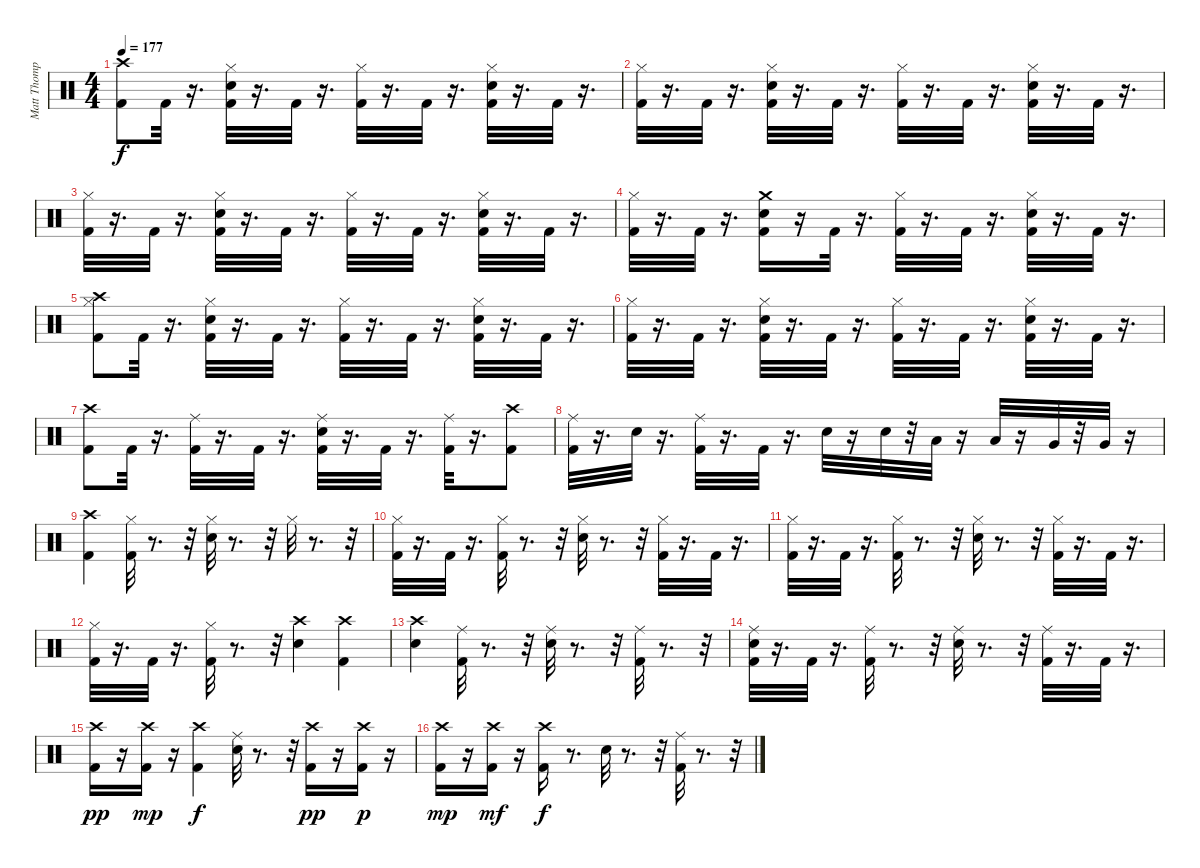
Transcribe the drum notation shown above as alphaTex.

\track ("Matt Thompson" "Matt Thomp") {instrument percussion}
\staff {score}
\articulation defaults
\ts (4 4)
\tempo 177
\clef neutral
\ks c
("Crash high (hit)" "Kick (hit) 2").8{dy f} "Kick (hit) 2".32 r.16{d} ("Snare (hit) 2" "Hi-Hat (closed)" "Kick (hit) 2").32 r.16{d} "Kick (hit) 2".32 r.16{d} ("Hi-Hat (closed)" "Kick (hit) 2").32 r.16{d} "Kick (hit) 2".32 r.16{d} ("Snare (hit) 2" "Hi-Hat (closed)" "Kick (hit) 2").32 r.16{d} "Kick (hit) 2".32 r.16{d} |
("Hi-Hat (closed)" "Kick (hit) 2").32 r.16{d} "Kick (hit) 2".32 r.16{d} ("Snare (hit) 2" "Hi-Hat (closed)" "Kick (hit) 2").32 r.16{d} "Kick (hit) 2".32 r.16{d} ("Hi-Hat (closed)" "Kick (hit) 2").32 r.16{d} "Kick (hit) 2".32 r.16{d} ("Snare (hit) 2" "Hi-Hat (closed)" "Kick (hit) 2").32 r.16{d} "Kick (hit) 2".32 r.16{d} |
("Hi-Hat (closed)" "Kick (hit) 2").32 r.16{d} "Kick (hit) 2".32 r.16{d} ("Snare (hit) 2" "Hi-Hat (closed)" "Kick (hit) 2").32 r.16{d} "Kick (hit) 2".32 r.16{d} ("Hi-Hat (closed)" "Kick (hit) 2").32 r.16{d} "Kick (hit) 2".32 r.16{d} ("Snare (hit) 2" "Hi-Hat (closed)" "Kick (hit) 2").32 r.16{d} "Kick (hit) 2".32 r.16{d} |
("Hi-Hat (closed)" "Kick (hit) 2").32 r.16{d} "Kick (hit) 2".32 r.16{d} ("Crash medium (hit)" "Kick (hit) 2" "Snare (hit) 2").16 r.16 "Kick (hit) 2".32 r.16{d} ("Hi-Hat (closed)" "Kick (hit) 2").32 r.16{d} "Kick (hit) 2".32 r.16{d} ("Hi-Hat (closed)" "Snare (hit) 2" "Kick (hit) 2").32 r.16{d} "Kick (hit) 2".32 r.16{d} |
("Hi-Hat (closed)" "Crash high (hit)" "Kick (hit) 2").8 "Kick (hit) 2".32 r.16{d} ("Snare (hit) 2" "Hi-Hat (closed)" "Kick (hit) 2").32 r.16{d} "Kick (hit) 2".32 r.16{d} ("Hi-Hat (closed)" "Kick (hit) 2").32 r.16{d} "Kick (hit) 2".32 r.16{d} ("Snare (hit) 2" "Hi-Hat (closed)" "Kick (hit) 2").32 r.16{d} "Kick (hit) 2".32 r.16{d} |
("Hi-Hat (closed)" "Kick (hit) 2").32 r.16{d} "Kick (hit) 2".32 r.16{d} ("Snare (hit) 2" "Hi-Hat (closed)" "Kick (hit) 2").32 r.16{d} "Kick (hit) 2".32 r.16{d} ("Hi-Hat (closed)" "Kick (hit) 2").32 r.16{d} "Kick (hit) 2".32 r.16{d} ("Snare (hit) 2" "Hi-Hat (closed)" "Kick (hit) 2").32 r.16{d} "Kick (hit) 2".32 r.16{d} |
("Crash high (hit)" "Kick (hit) 2").8 "Kick (hit) 2".32 r.16{d} ("Ride (middle)" "Kick (hit) 2").32 r.16{d} "Kick (hit) 2".32 r.16{d} ("Ride (middle)" "Snare (hit) 2" "Kick (hit) 2").32 r.16{d} "Kick (hit) 2".32 r.16{d} ("Ride (middle)" "Kick (hit) 2").32 r.16{d} ("Crash high (hit)" "Kick (hit) 2").8 |
("Ride (middle)" "Kick (hit) 2").32 r.16{d} "Snare (hit) 2".32 r.16{d} ("Ride (middle)" "Kick (hit) 2").32 r.16{d} "Kick (hit) 2".32 r.16{d} "Snare (hit) 2".32 r.16 "Snare (hit) 2".32 r.32 "Low Tom (hit)".32 r.16 "Low Tom (hit)".32 r.16 "Very Low Tom (hit)".32 r.32 "Very Low Tom (hit)".32 r.16 |
("Crash high (hit)" "Kick (hit) 2").4 ("Hi-Hat (closed)" "Kick (hit) 2").32 r.8{d} r.32 ("Hi-Hat (closed)" "Snare (hit) 2").32 r.8{d} r.32 "Hi-Hat (closed)".32 r.8{d} r.32 |
("Hi-Hat (closed)" "Kick (hit) 2").32 r.16{d} "Kick (hit) 2".32 r.16{d} ("Hi-Hat (closed)" "Kick (hit) 2").32 r.8{d} r.32 ("Hi-Hat (closed)" "Snare (hit) 2").32 r.8{d} r.32 ("Hi-Hat (closed)" "Kick (hit) 2").32 r.16{d} "Kick (hit) 2".32 r.16{d} |
("Kick (hit) 2" "Hi-Hat (closed)").32 r.16{d} "Kick (hit) 2".32 r.16{d} ("Kick (hit) 2" "Hi-Hat (closed)").32 r.8{d} r.32 ("Snare (hit) 2" "Hi-Hat (closed)").32 r.8{d} r.32 ("Kick (hit) 2" "Hi-Hat (closed)").32 r.16{d} "Kick (hit) 2".32 r.16{d} |
("Kick (hit) 2" "Hi-Hat (closed)").32 r.16{d} "Kick (hit) 2".32 r.16{d} ("Kick (hit) 2" "Hi-Hat (closed)").32 r.8{d} r.32 ("Snare (hit) 2" "Crash high (hit)").4 ("Kick (hit) 2" "Crash high (hit)").4 |
("Crash high (hit)" "Snare (hit) 2").4 ("Ride (middle)" "Kick (hit) 2").32 r.8{d} r.32 ("Ride (middle)" "Snare (hit) 2").32 r.8{d} r.32 ("Kick (hit) 2" "Ride (middle)").32 r.8{d} r.32 |
("Snare (hit) 2" "Ride (middle)" "Kick (hit) 2").32 r.16{d} "Kick (hit) 2".32 r.16{d} ("Ride (middle)" "Kick (hit) 2").32 r.8{d} r.32 ("Ride (middle)" "Snare (hit) 2").32 r.8{d} r.32 ("Ride (middle)" "Kick (hit) 2").32 r.16{d} "Kick (hit) 2".32 r.16{d} |
("Kick (hit) 2" "Crash high (hit)").16{dy pp} r.16 ("Crash high (hit)" "Kick (hit) 2").16{dy mp} r.16 ("Kick (hit) 2" "Crash high (hit)").4{dy f} ("Snare (hit) 2" "Ride (middle)").32 r.8{d} r.32 ("Kick (hit) 2" "Crash high (hit)").16{dy pp} r.16 ("Crash high (hit)" "Kick (hit) 2").16{dy p} r.16 |
("Crash high (hit)" "Kick (hit) 2").16{dy mp} r.16 ("Crash high (hit)" "Kick (hit) 2").16{dy mf} r.16 ("Crash high (hit)" "Kick (hit) 2").16{dy f} r.8{d} "Snare (hit) 2".32 r.8{d} r.32 ("Ride (middle)" "Kick (hit) 2").32 r.8{d} r.32
